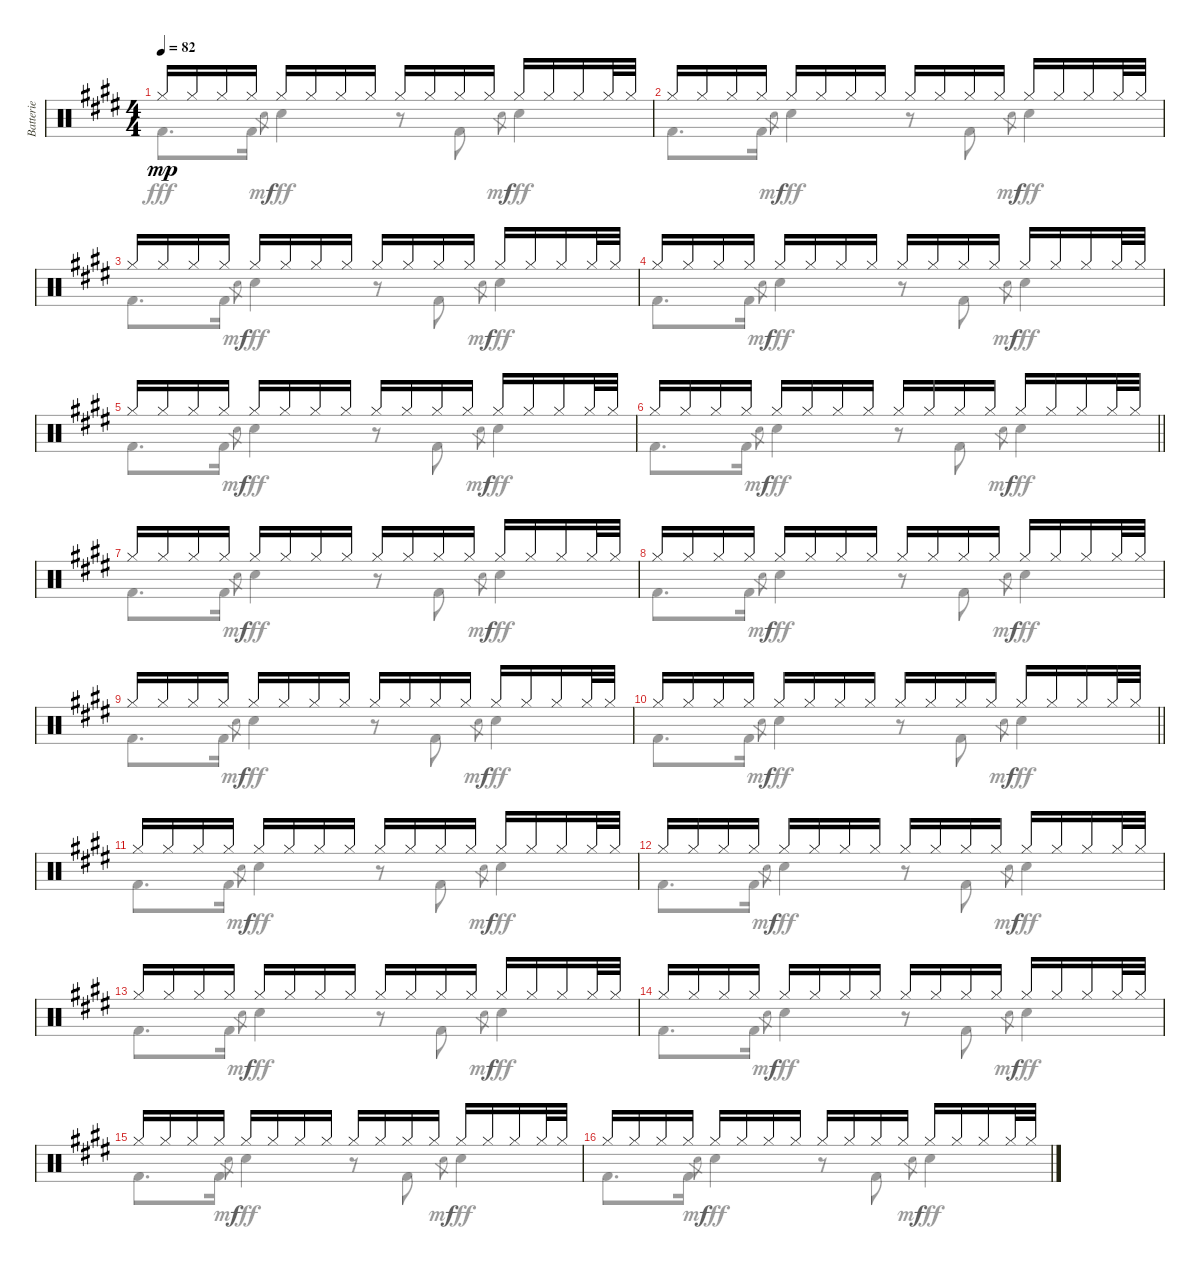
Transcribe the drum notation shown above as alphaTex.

\track ("Batterie" "Batterie") {instrument percussion}
\staff {score}
\articulation defaults
\voice
\ts (4 4)
\tempo 82
\clef neutral
\ks e "Hi-Hat (closed)".16{dy mp} "Hi-Hat (closed)".16 "Hi-Hat (closed)".16 "Hi-Hat (closed)".16 "Hi-Hat (closed)".16 "Hi-Hat (closed)".16 "Hi-Hat (closed)".16 "Hi-Hat (closed)".16 "Hi-Hat (closed)".16 "Hi-Hat (closed)".16 "Hi-Hat (closed)".16 "Hi-Hat (closed)".16 "Hi-Hat (closed)".16 "Hi-Hat (closed)".16 "Hi-Hat (closed)".16 "Hi-Hat (closed)".32 "Hi-Hat (closed)".32
|
"Hi-Hat (closed)".16 "Hi-Hat (closed)".16 "Hi-Hat (closed)".16 "Hi-Hat (closed)".16 "Hi-Hat (closed)".16 "Hi-Hat (closed)".16 "Hi-Hat (closed)".16 "Hi-Hat (closed)".16 "Hi-Hat (closed)".16 "Hi-Hat (closed)".16 "Hi-Hat (closed)".16 "Hi-Hat (closed)".16 "Hi-Hat (closed)".16 "Hi-Hat (closed)".16 "Hi-Hat (closed)".16 "Hi-Hat (closed)".32 "Hi-Hat (closed)".32 |
"Hi-Hat (closed)".16 "Hi-Hat (closed)".16 "Hi-Hat (closed)".16 "Hi-Hat (closed)".16 "Hi-Hat (closed)".16 "Hi-Hat (closed)".16 "Hi-Hat (closed)".16 "Hi-Hat (closed)".16 "Hi-Hat (closed)".16 "Hi-Hat (closed)".16 "Hi-Hat (closed)".16 "Hi-Hat (closed)".16 "Hi-Hat (closed)".16 "Hi-Hat (closed)".16 "Hi-Hat (closed)".16 "Hi-Hat (closed)".32 "Hi-Hat (closed)".32 |
"Hi-Hat (closed)".16 "Hi-Hat (closed)".16 "Hi-Hat (closed)".16 "Hi-Hat (closed)".16 "Hi-Hat (closed)".16 "Hi-Hat (closed)".16 "Hi-Hat (closed)".16 "Hi-Hat (closed)".16 "Hi-Hat (closed)".16 "Hi-Hat (closed)".16 "Hi-Hat (closed)".16 "Hi-Hat (closed)".16 "Hi-Hat (closed)".16 "Hi-Hat (closed)".16 "Hi-Hat (closed)".16 "Hi-Hat (closed)".32 "Hi-Hat (closed)".32 |
"Hi-Hat (closed)".16 "Hi-Hat (closed)".16 "Hi-Hat (closed)".16 "Hi-Hat (closed)".16 "Hi-Hat (closed)".16 "Hi-Hat (closed)".16 "Hi-Hat (closed)".16 "Hi-Hat (closed)".16 "Hi-Hat (closed)".16 "Hi-Hat (closed)".16 "Hi-Hat (closed)".16 "Hi-Hat (closed)".16 "Hi-Hat (closed)".16 "Hi-Hat (closed)".16 "Hi-Hat (closed)".16 "Hi-Hat (closed)".32 "Hi-Hat (closed)".32 |
\barLineRight lightlight "Hi-Hat (closed)".16 "Hi-Hat (closed)".16 "Hi-Hat (closed)".16 "Hi-Hat (closed)".16 "Hi-Hat (closed)".16 "Hi-Hat (closed)".16 "Hi-Hat (closed)".16 "Hi-Hat (closed)".16 "Hi-Hat (closed)".16 "Hi-Hat (closed)".16 "Hi-Hat (closed)".16 "Hi-Hat (closed)".16 "Hi-Hat (closed)".16 "Hi-Hat (closed)".16 "Hi-Hat (closed)".16 "Hi-Hat (closed)".32 "Hi-Hat (closed)".32
|
"Hi-Hat (closed)".16 "Hi-Hat (closed)".16 "Hi-Hat (closed)".16 "Hi-Hat (closed)".16 "Hi-Hat (closed)".16 "Hi-Hat (closed)".16 "Hi-Hat (closed)".16 "Hi-Hat (closed)".16 "Hi-Hat (closed)".16 "Hi-Hat (closed)".16 "Hi-Hat (closed)".16 "Hi-Hat (closed)".16 "Hi-Hat (closed)".16 "Hi-Hat (closed)".16 "Hi-Hat (closed)".16 "Hi-Hat (closed)".32 "Hi-Hat (closed)".32 |
"Hi-Hat (closed)".16 "Hi-Hat (closed)".16 "Hi-Hat (closed)".16 "Hi-Hat (closed)".16 "Hi-Hat (closed)".16 "Hi-Hat (closed)".16 "Hi-Hat (closed)".16 "Hi-Hat (closed)".16 "Hi-Hat (closed)".16 "Hi-Hat (closed)".16 "Hi-Hat (closed)".16 "Hi-Hat (closed)".16 "Hi-Hat (closed)".16 "Hi-Hat (closed)".16 "Hi-Hat (closed)".16 "Hi-Hat (closed)".32 "Hi-Hat (closed)".32 |
"Hi-Hat (closed)".16 "Hi-Hat (closed)".16 "Hi-Hat (closed)".16 "Hi-Hat (closed)".16 "Hi-Hat (closed)".16 "Hi-Hat (closed)".16 "Hi-Hat (closed)".16 "Hi-Hat (closed)".16 "Hi-Hat (closed)".16 "Hi-Hat (closed)".16 "Hi-Hat (closed)".16 "Hi-Hat (closed)".16 "Hi-Hat (closed)".16 "Hi-Hat (closed)".16 "Hi-Hat (closed)".16 "Hi-Hat (closed)".32 "Hi-Hat (closed)".32 |
\barLineRight lightlight "Hi-Hat (closed)".16 "Hi-Hat (closed)".16 "Hi-Hat (closed)".16 "Hi-Hat (closed)".16 "Hi-Hat (closed)".16 "Hi-Hat (closed)".16 "Hi-Hat (closed)".16 "Hi-Hat (closed)".16 "Hi-Hat (closed)".16 "Hi-Hat (closed)".16 "Hi-Hat (closed)".16 "Hi-Hat (closed)".16 "Hi-Hat (closed)".16 "Hi-Hat (closed)".16 "Hi-Hat (closed)".16 "Hi-Hat (closed)".32 "Hi-Hat (closed)".32
|
"Hi-Hat (closed)".16 "Hi-Hat (closed)".16 "Hi-Hat (closed)".16 "Hi-Hat (closed)".16 "Hi-Hat (closed)".16 "Hi-Hat (closed)".16 "Hi-Hat (closed)".16 "Hi-Hat (closed)".16 "Hi-Hat (closed)".16 "Hi-Hat (closed)".16 "Hi-Hat (closed)".16 "Hi-Hat (closed)".16 "Hi-Hat (closed)".16 "Hi-Hat (closed)".16 "Hi-Hat (closed)".16 "Hi-Hat (closed)".32 "Hi-Hat (closed)".32 |
"Hi-Hat (closed)".16 "Hi-Hat (closed)".16 "Hi-Hat (closed)".16 "Hi-Hat (closed)".16 "Hi-Hat (closed)".16 "Hi-Hat (closed)".16 "Hi-Hat (closed)".16 "Hi-Hat (closed)".16 "Hi-Hat (closed)".16 "Hi-Hat (closed)".16 "Hi-Hat (closed)".16 "Hi-Hat (closed)".16 "Hi-Hat (closed)".16 "Hi-Hat (closed)".16 "Hi-Hat (closed)".16 "Hi-Hat (closed)".32 "Hi-Hat (closed)".32 |
"Hi-Hat (closed)".16 "Hi-Hat (closed)".16 "Hi-Hat (closed)".16 "Hi-Hat (closed)".16 "Hi-Hat (closed)".16 "Hi-Hat (closed)".16 "Hi-Hat (closed)".16 "Hi-Hat (closed)".16 "Hi-Hat (closed)".16 "Hi-Hat (closed)".16 "Hi-Hat (closed)".16 "Hi-Hat (closed)".16 "Hi-Hat (closed)".16 "Hi-Hat (closed)".16 "Hi-Hat (closed)".16 "Hi-Hat (closed)".32 "Hi-Hat (closed)".32 |
"Hi-Hat (closed)".16 "Hi-Hat (closed)".16 "Hi-Hat (closed)".16 "Hi-Hat (closed)".16 "Hi-Hat (closed)".16 "Hi-Hat (closed)".16 "Hi-Hat (closed)".16 "Hi-Hat (closed)".16 "Hi-Hat (closed)".16 "Hi-Hat (closed)".16 "Hi-Hat (closed)".16 "Hi-Hat (closed)".16 "Hi-Hat (closed)".16 "Hi-Hat (closed)".16 "Hi-Hat (closed)".16 "Hi-Hat (closed)".32 "Hi-Hat (closed)".32 |
"Hi-Hat (closed)".16 "Hi-Hat (closed)".16 "Hi-Hat (closed)".16 "Hi-Hat (closed)".16 "Hi-Hat (closed)".16 "Hi-Hat (closed)".16 "Hi-Hat (closed)".16 "Hi-Hat (closed)".16 "Hi-Hat (closed)".16 "Hi-Hat (closed)".16 "Hi-Hat (closed)".16 "Hi-Hat (closed)".16 "Hi-Hat (closed)".16 "Hi-Hat (closed)".16 "Hi-Hat (closed)".16 "Hi-Hat (closed)".32 "Hi-Hat (closed)".32 |
"Hi-Hat (closed)".16 "Hi-Hat (closed)".16 "Hi-Hat (closed)".16 "Hi-Hat (closed)".16 "Hi-Hat (closed)".16 "Hi-Hat (closed)".16 "Hi-Hat (closed)".16 "Hi-Hat (closed)".16 "Hi-Hat (closed)".16 "Hi-Hat (closed)".16 "Hi-Hat (closed)".16 "Hi-Hat (closed)".16 "Hi-Hat (closed)".16 "Hi-Hat (closed)".16 "Hi-Hat (closed)".16 "Hi-Hat (closed)".32 "Hi-Hat (closed)".32
\voice
\clef neutral
\ottava regular
\simile none
\ks e "Kick (hit) 2".8{d dy fff} "Kick (hit) 2".16 "Hand Clap (hit)".8{gr dy mf} "Hand Clap (hit)".4{dy fff}
r.8 "Kick (hit) 2".8 "Hand Clap (hit)".8{gr dy mf} "Hand Clap (hit)".4{dy fff} |
"Kick (hit) 2".8{d} "Kick (hit) 2".16 "Hand Clap (hit)".8{gr dy mf} "Hand Clap (hit)".4{dy fff} r.8 "Kick (hit) 2".8 "Hand Clap (hit)".8{gr dy mf} "Hand Clap (hit)".4{dy fff} |
"Kick (hit) 2".8{d} "Kick (hit) 2".16 "Hand Clap (hit)".8{gr dy mf} "Hand Clap (hit)".4{dy fff} r.8 "Kick (hit) 2".8 "Hand Clap (hit)".8{gr dy mf} "Hand Clap (hit)".4{dy fff} |
"Kick (hit) 2".8{d} "Kick (hit) 2".16 "Hand Clap (hit)".8{gr dy mf} "Hand Clap (hit)".4{dy fff} r.8 "Kick (hit) 2".8 "Hand Clap (hit)".8{gr dy mf} "Hand Clap (hit)".4{dy fff} |
"Kick (hit) 2".8{d} "Kick (hit) 2".16 "Hand Clap (hit)".8{gr dy mf} "Hand Clap (hit)".4{dy fff} r.8 "Kick (hit) 2".8 "Hand Clap (hit)".8{gr dy mf} "Hand Clap (hit)".4{dy fff} |
\barLineRight lightlight "Kick (hit) 2".8{d} "Kick (hit) 2".16 "Hand Clap (hit)".8{gr dy mf} "Hand Clap (hit)".4{dy fff}
r.8 "Kick (hit) 2".8 "Hand Clap (hit)".8{gr dy mf} "Hand Clap (hit)".4{dy fff} |
"Kick (hit) 2".8{d} "Kick (hit) 2".16 "Hand Clap (hit)".8{gr dy mf} "Hand Clap (hit)".4{dy fff} r.8 "Kick (hit) 2".8 "Hand Clap (hit)".8{gr dy mf} "Hand Clap (hit)".4{dy fff} |
"Kick (hit) 2".8{d} "Kick (hit) 2".16 "Hand Clap (hit)".8{gr dy mf} "Hand Clap (hit)".4{dy fff} r.8 "Kick (hit) 2".8 "Hand Clap (hit)".8{gr dy mf} "Hand Clap (hit)".4{dy fff} |
"Kick (hit) 2".8{d} "Kick (hit) 2".16 "Hand Clap (hit)".8{gr dy mf} "Hand Clap (hit)".4{dy fff} r.8 "Kick (hit) 2".8 "Hand Clap (hit)".8{gr dy mf} "Hand Clap (hit)".4{dy fff} |
\barLineRight lightlight "Kick (hit) 2".8{d} "Kick (hit) 2".16 "Hand Clap (hit)".8{gr dy mf} "Hand Clap (hit)".4{dy fff}
r.8 "Kick (hit) 2".8 "Hand Clap (hit)".8{gr dy mf} "Hand Clap (hit)".4{dy fff} |
"Kick (hit) 2".8{d} "Kick (hit) 2".16 "Hand Clap (hit)".8{gr dy mf} "Hand Clap (hit)".4{dy fff} r.8 "Kick (hit) 2".8 "Hand Clap (hit)".8{gr dy mf} "Hand Clap (hit)".4{dy fff} |
"Kick (hit) 2".8{d} "Kick (hit) 2".16 "Hand Clap (hit)".8{gr dy mf} "Hand Clap (hit)".4{dy fff} r.8 "Kick (hit) 2".8 "Hand Clap (hit)".8{gr dy mf} "Hand Clap (hit)".4{dy fff} |
"Kick (hit) 2".8{d} "Kick (hit) 2".16 "Hand Clap (hit)".8{gr dy mf} "Hand Clap (hit)".4{dy fff} r.8 "Kick (hit) 2".8 "Hand Clap (hit)".8{gr dy mf} "Hand Clap (hit)".4{dy fff} |
"Kick (hit) 2".8{d} "Kick (hit) 2".16 "Hand Clap (hit)".8{gr dy mf} "Hand Clap (hit)".4{dy fff} r.8 "Kick (hit) 2".8 "Hand Clap (hit)".8{gr dy mf} "Hand Clap (hit)".4{dy fff} |
"Kick (hit) 2".8{d} "Kick (hit) 2".16 "Hand Clap (hit)".8{gr dy mf} "Hand Clap (hit)".4{dy fff} r.8 "Kick (hit) 2".8 "Hand Clap (hit)".8{gr dy mf} "Hand Clap (hit)".4{dy fff} |
"Kick (hit) 2".8{d} "Kick (hit) 2".16 "Hand Clap (hit)".8{gr dy mf} "Hand Clap (hit)".4{dy fff} r.8 "Kick (hit) 2".8 "Hand Clap (hit)".8{gr dy mf} "Hand Clap (hit)".4{dy fff}
